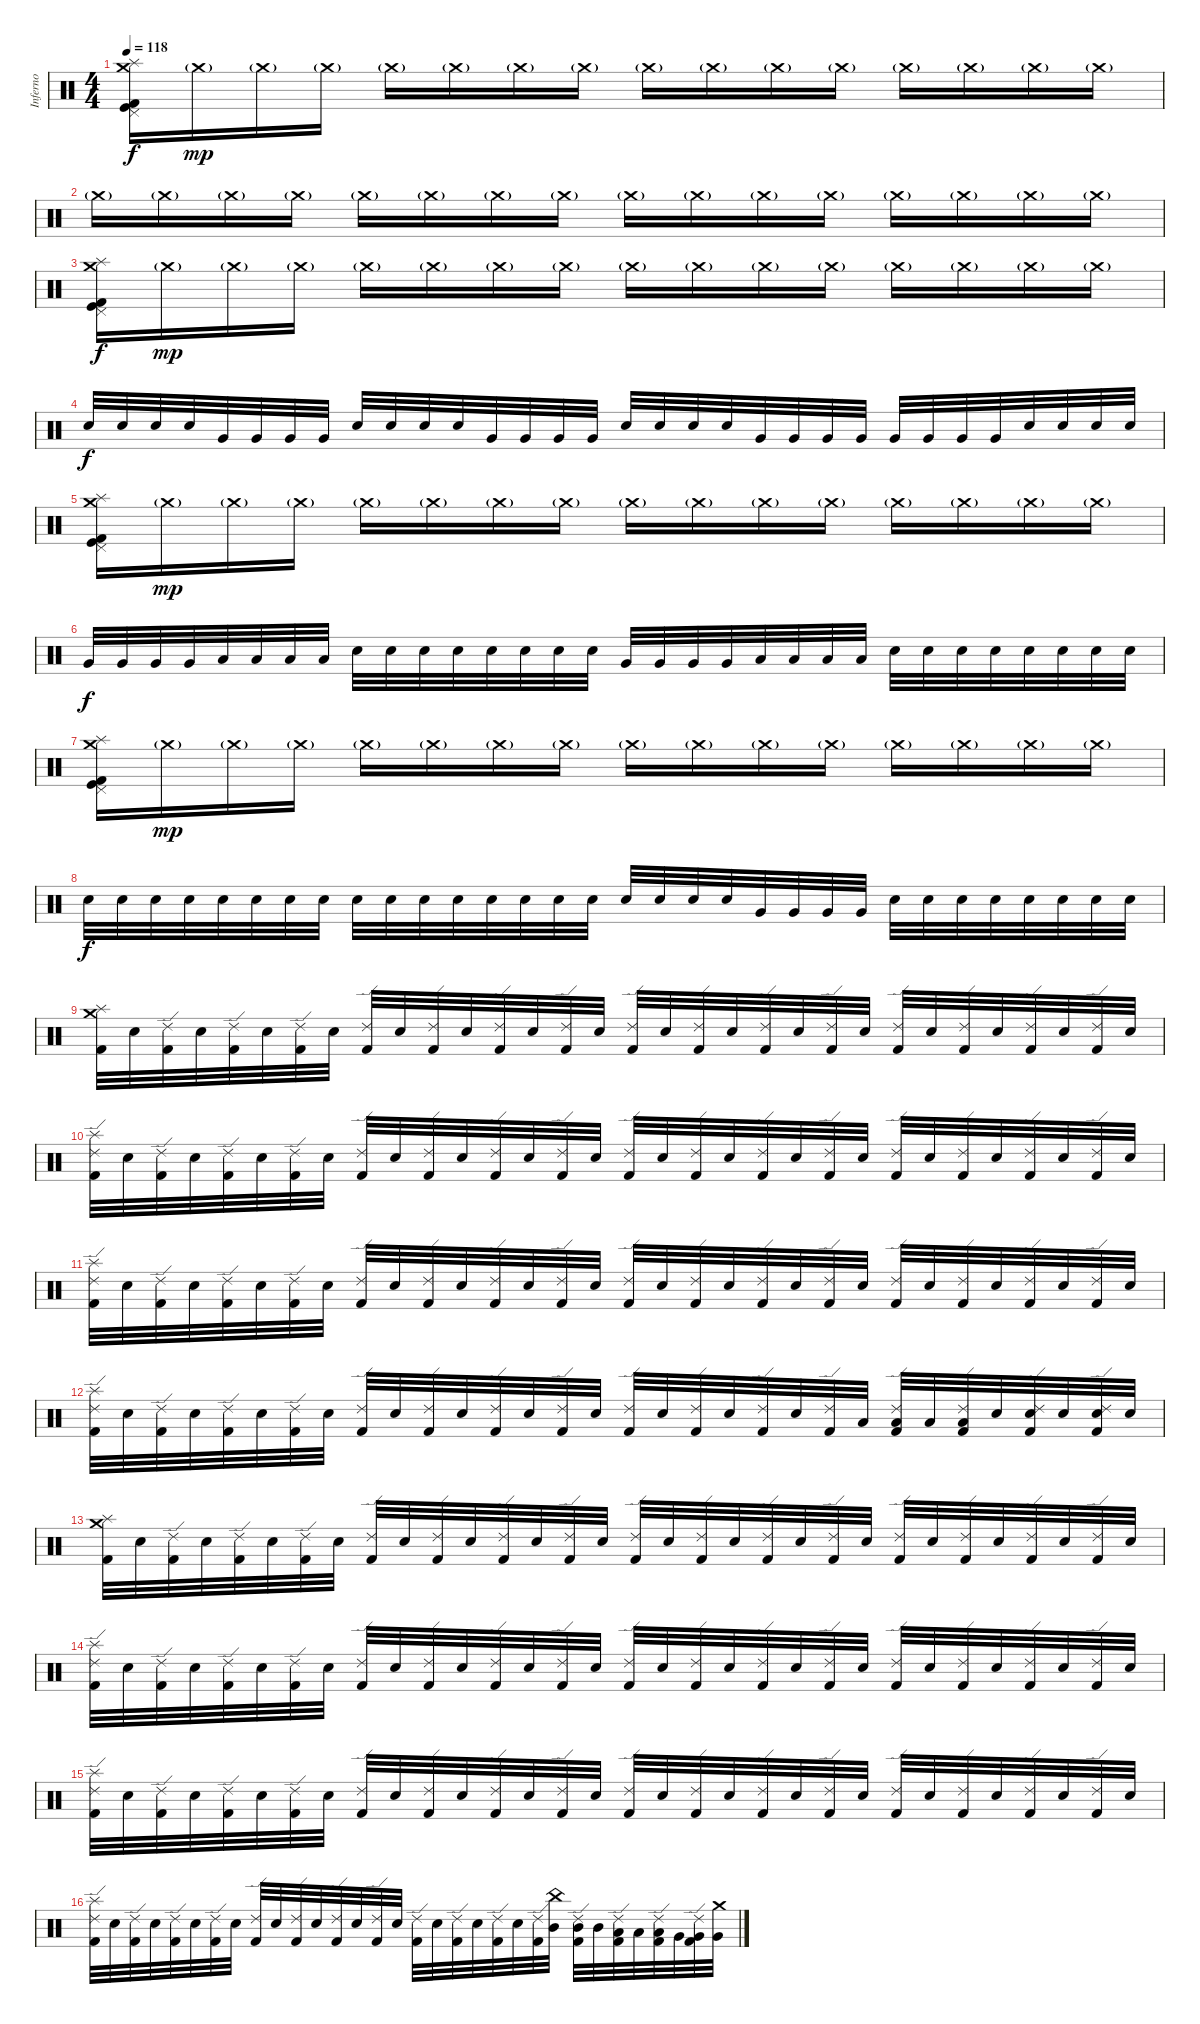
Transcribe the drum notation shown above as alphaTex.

\track ("Inferno" "Inferno") {instrument percussion}
\staff {score}
\articulation defaults
\ts (4 4)
\tempo 118
\clef neutral
\ks c
("Crash medium (hit)" "Splash (hit)" "Pedal Hi-Hat (hit)" "Kick (hit)" "Kick (hit) 2").16{dy f} "Crash medium (hit)"{g}.16{dy mp} "Crash medium (hit)"{g}.16 "Crash medium (hit)"{g}.16 "Crash medium (hit)"{g}.16 "Crash medium (hit)"{g}.16 "Crash medium (hit)"{g}.16 "Crash medium (hit)"{g}.16 "Crash medium (hit)"{g}.16 "Crash medium (hit)"{g}.16 "Crash medium (hit)"{g}.16 "Crash medium (hit)"{g}.16 "Crash medium (hit)"{g}.16 "Crash medium (hit)"{g}.16 "Crash medium (hit)"{g}.16 "Crash medium (hit)"{g}.16 |
"Crash medium (hit)"{g}.16 "Crash medium (hit)"{g}.16 "Crash medium (hit)"{g}.16 "Crash medium (hit)"{g}.16 "Crash medium (hit)"{g}.16 "Crash medium (hit)"{g}.16 "Crash medium (hit)"{g}.16 "Crash medium (hit)"{g}.16 "Crash medium (hit)"{g}.16 "Crash medium (hit)"{g}.16 "Crash medium (hit)"{g}.16 "Crash medium (hit)"{g}.16 "Crash medium (hit)"{g}.16 "Crash medium (hit)"{g}.16 "Crash medium (hit)"{g}.16 "Crash medium (hit)"{g}.16 |
("Crash medium (hit)" "Splash (hit)" "Pedal Hi-Hat (hit)" "Kick (hit)" "Kick (hit) 2").16{dy f} "Crash medium (hit)"{g}.16{dy mp} "Crash medium (hit)"{g}.16 "Crash medium (hit)"{g}.16 "Crash medium (hit)"{g}.16 "Crash medium (hit)"{g}.16 "Crash medium (hit)"{g}.16 "Crash medium (hit)"{g}.16 "Crash medium (hit)"{g}.16 "Crash medium (hit)"{g}.16 "Crash medium (hit)"{g}.16 "Crash medium (hit)"{g}.16 "Crash medium (hit)"{g}.16 "Crash medium (hit)"{g}.16 "Crash medium (hit)"{g}.16 "Crash medium (hit)"{g}.16 |
"Electric Snare (hit)".32{dy f} "Electric Snare (hit)".32 "Electric Snare (hit)".32 "Electric Snare (hit)".32 "Very Low Tom (hit)".32 "Very Low Tom (hit)".32 "Very Low Tom (hit)".32 "Very Low Tom (hit)".32 "Electric Snare (hit)".32 "Electric Snare (hit)".32 "Electric Snare (hit)".32 "Electric Snare (hit)".32 "Very Low Tom (hit)".32 "Very Low Tom (hit)".32 "Very Low Tom (hit)".32 "Very Low Tom (hit)".32 "Electric Snare (hit)".32 "Electric Snare (hit)".32 "Electric Snare (hit)".32 "Electric Snare (hit)".32 "Very Low Tom (hit)".32 "Very Low Tom (hit)".32 "Very Low Tom (hit)".32 "Very Low Tom (hit)".32 "Very Low Tom (hit)".32 "Very Low Tom (hit)".32 "Very Low Tom (hit)".32 "Very Low Tom (hit)".32 "Electric Snare (hit)".32 "Electric Snare (hit)".32 "Electric Snare (hit)".32 "Electric Snare (hit)".32 |
("Crash medium (hit)" "Splash (hit)" "Pedal Hi-Hat (hit)" "Kick (hit)" "Kick (hit) 2").16 "Crash medium (hit)"{g}.16{dy mp} "Crash medium (hit)"{g}.16 "Crash medium (hit)"{g}.16 "Crash medium (hit)"{g}.16 "Crash medium (hit)"{g}.16 "Crash medium (hit)"{g}.16 "Crash medium (hit)"{g}.16 "Crash medium (hit)"{g}.16 "Crash medium (hit)"{g}.16 "Crash medium (hit)"{g}.16 "Crash medium (hit)"{g}.16 "Crash medium (hit)"{g}.16 "Crash medium (hit)"{g}.16 "Crash medium (hit)"{g}.16 "Crash medium (hit)"{g}.16 |
"Very Low Tom (hit)".32{dy f} "Very Low Tom (hit)".32 "Very Low Tom (hit)".32 "Very Low Tom (hit)".32 "Low Tom (hit)".32 "Low Tom (hit)".32 "Low Tom (hit)".32 "Low Tom (hit)".32 "Electric Snare (hit)".32 "Electric Snare (hit)".32 "Electric Snare (hit)".32 "Electric Snare (hit)".32 "Electric Snare (hit)".32 "Electric Snare (hit)".32 "Electric Snare (hit)".32 "Electric Snare (hit)".32 "Very Low Tom (hit)".32 "Very Low Tom (hit)".32 "Very Low Tom (hit)".32 "Very Low Tom (hit)".32 "Low Tom (hit)".32 "Low Tom (hit)".32 "Low Tom (hit)".32 "Low Tom (hit)".32 "Electric Snare (hit)".32 "Electric Snare (hit)".32 "Electric Snare (hit)".32 "Electric Snare (hit)".32 "Electric Snare (hit)".32 "Electric Snare (hit)".32 "Electric Snare (hit)".32 "Electric Snare (hit)".32 |
("Crash medium (hit)" "Splash (hit)" "Pedal Hi-Hat (hit)" "Kick (hit)" "Kick (hit) 2").16 "Crash medium (hit)"{g}.16{dy mp} "Crash medium (hit)"{g}.16 "Crash medium (hit)"{g}.16 "Crash medium (hit)"{g}.16 "Crash medium (hit)"{g}.16 "Crash medium (hit)"{g}.16 "Crash medium (hit)"{g}.16 "Crash medium (hit)"{g}.16 "Crash medium (hit)"{g}.16 "Crash medium (hit)"{g}.16 "Crash medium (hit)"{g}.16 "Crash medium (hit)"{g}.16 "Crash medium (hit)"{g}.16 "Crash medium (hit)"{g}.16 "Crash medium (hit)"{g}.16 |
"Electric Snare (hit)".32{dy f} "Electric Snare (hit)".32 "Electric Snare (hit)".32 "Electric Snare (hit)".32 "Electric Snare (hit)".32 "Electric Snare (hit)".32 "Electric Snare (hit)".32 "Electric Snare (hit)".32 "Snare (hit) 2".32 "Snare (hit) 2".32 "Snare (hit) 2".32 "Snare (hit) 2".32 "Electric Snare (hit)".32 "Electric Snare (hit)".32 "Electric Snare (hit)".32 "Electric Snare (hit)".32 "Electric Snare (hit)".32 "Electric Snare (hit)".32 "Electric Snare (hit)".32 "Electric Snare (hit)".32 "Very Low Tom (hit)".32 "Very Low Tom (hit)".32 "Very Low Tom (hit)".32 "Very Low Tom (hit)".32 "Electric Snare (hit)".32 "Electric Snare (hit)".32 "Electric Snare (hit)".32 "Electric Snare (hit)".32 "Snare (hit) 2".32 "Snare (hit) 2".32 "Snare (hit) 2".32 "Snare (hit) 2".32 |
("Crash medium (hit)" "Splash (hit)" "Kick (hit) 2").32 "Electric Snare (hit)".32 ("Ride (edge) 2" "Kick (hit) 2").32 "Electric Snare (hit)".32 ("Ride (edge) 2" "Kick (hit) 2").32 "Electric Snare (hit)".32 ("Ride (edge) 2" "Kick (hit) 2").32 "Electric Snare (hit)".32 ("Ride (edge) 2" "Kick (hit) 2").32 "Electric Snare (hit)".32 ("Ride (edge) 2" "Kick (hit) 2").32 "Electric Snare (hit)".32 ("Ride (edge) 2" "Kick (hit) 2").32 "Electric Snare (hit)".32 ("Ride (edge) 2" "Kick (hit) 2").32 "Electric Snare (hit)".32 ("Ride (edge) 2" "Kick (hit) 2").32 "Electric Snare (hit)".32 ("Ride (edge) 2" "Kick (hit) 2").32 "Electric Snare (hit)".32 ("Ride (edge) 2" "Kick (hit) 2").32 "Electric Snare (hit)".32 ("Ride (edge) 2" "Kick (hit) 2").32 "Electric Snare (hit)".32 ("Ride (edge) 2" "Kick (hit) 2").32 "Electric Snare (hit)".32 ("Ride (edge) 2" "Kick (hit) 2").32 "Electric Snare (hit)".32 ("Ride (edge) 2" "Kick (hit) 2").32 "Electric Snare (hit)".32 ("Ride (edge) 2" "Kick (hit) 2").32 "Electric Snare (hit)".32 |
("Ride (edge) 2" "Splash (hit)" "Kick (hit) 2").32 "Electric Snare (hit)".32 ("Ride (edge) 2" "Kick (hit) 2").32 "Electric Snare (hit)".32 ("Ride (edge) 2" "Kick (hit) 2").32 "Electric Snare (hit)".32 ("Ride (edge) 2" "Kick (hit) 2").32 "Electric Snare (hit)".32 ("Ride (edge) 2" "Kick (hit) 2").32 "Electric Snare (hit)".32 ("Ride (edge) 2" "Kick (hit) 2").32 "Electric Snare (hit)".32 ("Ride (edge) 2" "Kick (hit) 2").32 "Electric Snare (hit)".32 ("Ride (edge) 2" "Kick (hit) 2").32 "Electric Snare (hit)".32 ("Ride (edge) 2" "Kick (hit) 2").32 "Electric Snare (hit)".32 ("Ride (edge) 2" "Kick (hit) 2").32 "Electric Snare (hit)".32 ("Ride (edge) 2" "Kick (hit) 2").32 "Electric Snare (hit)".32 ("Ride (edge) 2" "Kick (hit) 2").32 "Electric Snare (hit)".32 ("Ride (edge) 2" "Kick (hit) 2").32 "Electric Snare (hit)".32 ("Ride (edge) 2" "Kick (hit) 2").32 "Electric Snare (hit)".32 ("Ride (edge) 2" "Kick (hit) 2").32 "Electric Snare (hit)".32 ("Ride (edge) 2" "Kick (hit) 2").32 "Electric Snare (hit)".32 |
("Ride (edge) 2" "Splash (hit)" "Kick (hit) 2").32 "Electric Snare (hit)".32 ("Ride (edge) 2" "Kick (hit) 2").32 "Electric Snare (hit)".32 ("Ride (edge) 2" "Kick (hit) 2").32 "Electric Snare (hit)".32 ("Ride (edge) 2" "Kick (hit) 2").32 "Electric Snare (hit)".32 ("Ride (edge) 2" "Kick (hit) 2").32 "Electric Snare (hit)".32 ("Ride (edge) 2" "Kick (hit) 2").32 "Electric Snare (hit)".32 ("Ride (edge) 2" "Kick (hit) 2").32 "Electric Snare (hit)".32 ("Ride (edge) 2" "Kick (hit) 2").32 "Electric Snare (hit)".32 ("Ride (edge) 2" "Kick (hit) 2").32 "Electric Snare (hit)".32 ("Ride (edge) 2" "Kick (hit) 2").32 "Electric Snare (hit)".32 ("Ride (edge) 2" "Kick (hit) 2").32 "Electric Snare (hit)".32 ("Ride (edge) 2" "Kick (hit) 2").32 "Electric Snare (hit)".32 ("Ride (edge) 2" "Kick (hit) 2").32 "Electric Snare (hit)".32 ("Ride (edge) 2" "Kick (hit) 2").32 "Electric Snare (hit)".32 ("Ride (edge) 2" "Kick (hit) 2").32 "Electric Snare (hit)".32 ("Ride (edge) 2" "Kick (hit) 2").32 "Electric Snare (hit)".32 |
("Ride (edge) 2" "Splash (hit)" "Kick (hit) 2").32 "Electric Snare (hit)".32 ("Ride (edge) 2" "Kick (hit) 2").32 "Electric Snare (hit)".32 ("Ride (edge) 2" "Kick (hit) 2").32 "Electric Snare (hit)".32 ("Ride (edge) 2" "Kick (hit) 2").32 "Electric Snare (hit)".32 ("Ride (edge) 2" "Kick (hit) 2").32 "Electric Snare (hit)".32 ("Ride (edge) 2" "Kick (hit) 2").32 "Electric Snare (hit)".32 ("Ride (edge) 2" "Kick (hit) 2").32 "Electric Snare (hit)".32 ("Ride (edge) 2" "Kick (hit) 2").32 "Electric Snare (hit)".32 ("Ride (edge) 2" "Kick (hit) 2").32 "Electric Snare (hit)".32 ("Ride (edge) 2" "Kick (hit) 2").32 "Electric Snare (hit)".32 ("Ride (edge) 2" "Kick (hit) 2").32 "Electric Snare (hit)".32 ("Ride (edge) 2" "Kick (hit) 2").32 "Low Tom (hit)".32 ("Ride (edge) 2" "Low Tom (hit)" "Kick (hit) 2").32 "Low Tom (hit)".32 ("Ride (edge) 2" "Low Tom (hit)" "Kick (hit) 2").32 "Electric Snare (hit)".32 ("Ride (edge) 2" "Electric Snare (hit)" "Kick (hit) 2").32 "Electric Snare (hit)".32 ("Ride (edge) 2" "Electric Snare (hit)" "Kick (hit) 2").32 "Snare (hit) 2".32 |
("Crash medium (hit)" "Splash (hit)" "Kick (hit) 2").32 "Electric Snare (hit)".32 ("Ride (edge) 2" "Kick (hit) 2").32 "Electric Snare (hit)".32 ("Ride (edge) 2" "Kick (hit) 2").32 "Electric Snare (hit)".32 ("Ride (edge) 2" "Kick (hit) 2").32 "Electric Snare (hit)".32 ("Ride (edge) 2" "Kick (hit) 2").32 "Electric Snare (hit)".32 ("Ride (edge) 2" "Kick (hit) 2").32 "Electric Snare (hit)".32 ("Ride (edge) 2" "Kick (hit) 2").32 "Electric Snare (hit)".32 ("Ride (edge) 2" "Kick (hit) 2").32 "Electric Snare (hit)".32 ("Ride (edge) 2" "Kick (hit) 2").32 "Electric Snare (hit)".32 ("Ride (edge) 2" "Kick (hit) 2").32 "Electric Snare (hit)".32 ("Ride (edge) 2" "Kick (hit) 2").32 "Electric Snare (hit)".32 ("Ride (edge) 2" "Kick (hit) 2").32 "Electric Snare (hit)".32 ("Ride (edge) 2" "Kick (hit) 2").32 "Electric Snare (hit)".32 ("Ride (edge) 2" "Kick (hit) 2").32 "Electric Snare (hit)".32 ("Ride (edge) 2" "Kick (hit) 2").32 "Electric Snare (hit)".32 ("Ride (edge) 2" "Kick (hit) 2").32 "Electric Snare (hit)".32 |
("Ride (edge) 2" "Splash (hit)" "Kick (hit) 2").32 "Electric Snare (hit)".32 ("Ride (edge) 2" "Kick (hit) 2").32 "Electric Snare (hit)".32 ("Ride (edge) 2" "Kick (hit) 2").32 "Electric Snare (hit)".32 ("Ride (edge) 2" "Kick (hit) 2").32 "Electric Snare (hit)".32 ("Ride (edge) 2" "Kick (hit) 2").32 "Electric Snare (hit)".32 ("Ride (edge) 2" "Kick (hit) 2").32 "Electric Snare (hit)".32 ("Ride (edge) 2" "Kick (hit) 2").32 "Electric Snare (hit)".32 ("Ride (edge) 2" "Kick (hit) 2").32 "Electric Snare (hit)".32 ("Ride (edge) 2" "Kick (hit) 2").32 "Electric Snare (hit)".32 ("Ride (edge) 2" "Kick (hit) 2").32 "Electric Snare (hit)".32 ("Ride (edge) 2" "Kick (hit) 2").32 "Electric Snare (hit)".32 ("Ride (edge) 2" "Kick (hit) 2").32 "Electric Snare (hit)".32 ("Ride (edge) 2" "Kick (hit) 2").32 "Electric Snare (hit)".32 ("Ride (edge) 2" "Kick (hit) 2").32 "Electric Snare (hit)".32 ("Ride (edge) 2" "Kick (hit) 2").32 "Electric Snare (hit)".32 ("Ride (edge) 2" "Kick (hit) 2").32 "Electric Snare (hit)".32 |
("Ride (edge) 2" "Splash (hit)" "Kick (hit) 2").32 "Electric Snare (hit)".32 ("Ride (edge) 2" "Kick (hit) 2").32 "Electric Snare (hit)".32 ("Ride (edge) 2" "Kick (hit) 2").32 "Electric Snare (hit)".32 ("Ride (edge) 2" "Kick (hit) 2").32 "Electric Snare (hit)".32 ("Ride (edge) 2" "Kick (hit) 2").32 "Electric Snare (hit)".32 ("Ride (edge) 2" "Kick (hit) 2").32 "Electric Snare (hit)".32 ("Ride (edge) 2" "Kick (hit) 2").32 "Electric Snare (hit)".32 ("Ride (edge) 2" "Kick (hit) 2").32 "Electric Snare (hit)".32 ("Ride (edge) 2" "Kick (hit) 2").32 "Electric Snare (hit)".32 ("Ride (edge) 2" "Kick (hit) 2").32 "Electric Snare (hit)".32 ("Ride (edge) 2" "Kick (hit) 2").32 "Electric Snare (hit)".32 ("Ride (edge) 2" "Kick (hit) 2").32 "Electric Snare (hit)".32 ("Ride (edge) 2" "Kick (hit) 2").32 "Electric Snare (hit)".32 ("Ride (edge) 2" "Kick (hit) 2").32 "Electric Snare (hit)".32 ("Ride (edge) 2" "Kick (hit) 2").32 "Electric Snare (hit)".32 ("Ride (edge) 2" "Kick (hit) 2").32 "Electric Snare (hit)".32 |
("Ride (edge) 2" "Splash (hit)" "Kick (hit) 2").32 "Electric Snare (hit)".32 ("Ride (edge) 2" "Kick (hit) 2").32 "Electric Snare (hit)".32 ("Ride (edge) 2" "Kick (hit) 2").32 "Electric Snare (hit)".32 ("Ride (edge) 2" "Kick (hit) 2").32 "Electric Snare (hit)".32 ("Ride (edge) 2" "Kick (hit) 2").32 "Electric Snare (hit)".32 ("Ride (edge) 2" "Kick (hit) 2").32 "Electric Snare (hit)".32 ("Ride (edge) 2" "Kick (hit) 2").32 "Electric Snare (hit)".32 ("Ride (edge) 2" "Kick (hit) 2").32 "Electric Snare (hit)".32 ("Ride (edge) 2" "Kick (hit) 2").32 "Electric Snare (hit)".32 ("Ride (edge) 2" "Kick (hit) 2").32 "Electric Snare (hit)".32 ("Ride (edge) 2" "Kick (hit) 2").32 "Electric Snare (hit)".32 ("Ride (edge) 2" "Kick (hit) 2").32 ("China (hit)" "Mid Tom (hit)").32 ("Ride (edge) 2" "Mid Tom (hit)" "Kick (hit) 2").32 "Mid Tom (hit)".32 ("Ride (edge) 2" "Low Tom (hit)" "Kick (hit) 2").32 "Low Tom (hit)".32 ("Ride (edge) 2" "Low Tom (hit)" "Kick (hit) 2").32 "Very Low Tom (hit)".32 ("Ride (edge) 2" "Very Low Tom (hit)" "Kick (hit) 2").32 ("Crash medium (hit)" "Very Low Tom (hit)").32
